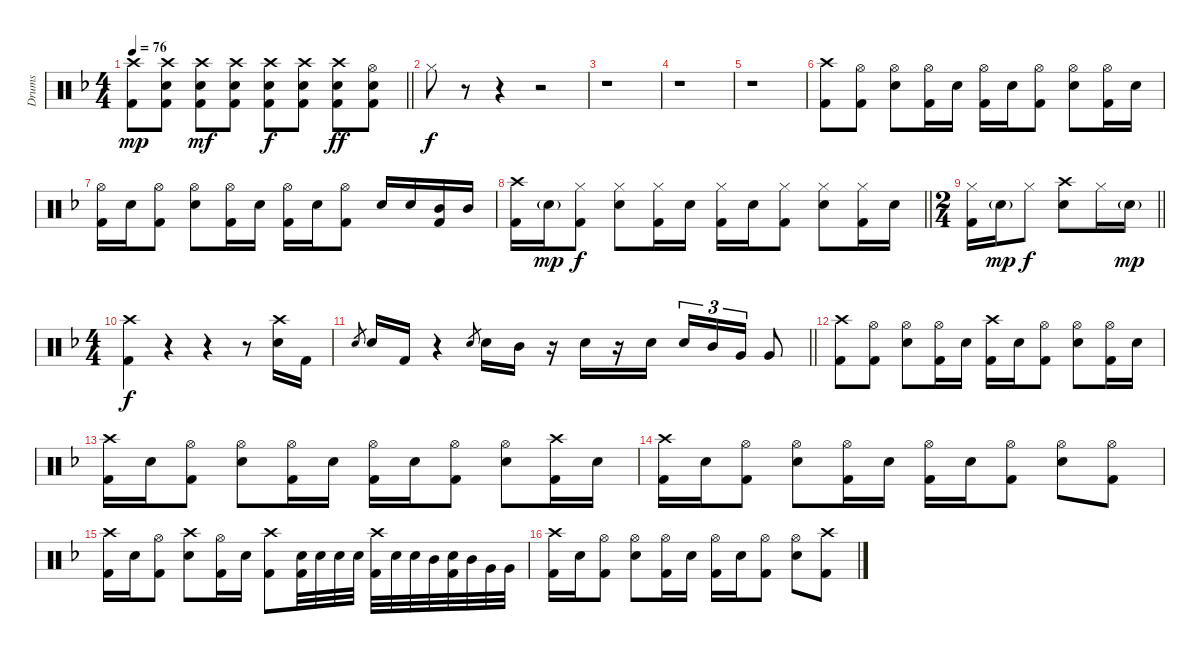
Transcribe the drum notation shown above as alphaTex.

\track ("Drums" "Drums") {instrument percussion}
\staff {score}
\articulation defaults
\ts (4 4)
\tempo 76
\clef neutral
\barLineRight lightlight
\ks f
("Crash high (hit)" "Kick (hit) 2").8{dy mp} ("Crash high (hit)" "Electric Snare (hit)" "Kick (hit) 2").8 ("Crash high (hit)" "Electric Snare (hit)" "Kick (hit) 2").8{dy mf} ("Crash high (hit)" "Electric Snare (hit)" "Kick (hit) 2").8 ("Crash high (hit)" "Electric Snare (hit)" "Kick (hit) 2").8{dy f} ("Crash high (hit)" "Electric Snare (hit)" "Kick (hit) 2").8 ("Crash high (hit)" "Electric Snare (hit)" "Kick (hit) 2").8{dy ff} ("Hi-Hat (open)" "Electric Snare (hit)" "Kick (hit) 2").8 |
"Hi-Hat (closed)".8{dy f} r.8 r.4 r.2 |
r.1 |
r.1 |
r.1 |
("Crash high (hit)" "Kick (hit) 2").8 ("Hi-Hat (open)" "Kick (hit) 2").8 ("Hi-Hat (open)" "Electric Snare (hit)").8 ("Hi-Hat (open)" "Kick (hit) 2").16 "Electric Snare (hit)".16 ("Hi-Hat (open)" "Kick (hit) 2").16 "Electric Snare (hit)".16 ("Hi-Hat (open)" "Kick (hit) 2").8 ("Hi-Hat (open)" "Electric Snare (hit)").8 ("Hi-Hat (open)" "Kick (hit) 2").16 "Electric Snare (hit)".16 |
("Hi-Hat (open)" "Kick (hit) 2").16 "Electric Snare (hit)".16 ("Hi-Hat (open)" "Kick (hit) 2").8 ("Hi-Hat (open)" "Electric Snare (hit)").8 ("Hi-Hat (open)" "Kick (hit) 2").16 "Electric Snare (hit)".16 ("Hi-Hat (open)" "Kick (hit) 2").16 "Electric Snare (hit)".16 ("Hi-Hat (open)" "Kick (hit) 2").8 "Electric Snare (hit)".16 "Electric Snare (hit)".16 ("Mid Tom (hit)" "Kick (hit) 2").16 "Mid Tom (hit)".16 |
\barLineRight lightlight
("Crash high (hit)" "Kick (hit) 2").16 "Electric Snare (hit)"{g}.16{dy mp} ("Hi-Hat (closed)" "Kick (hit) 2").8{dy f} ("Hi-Hat (closed)" "Electric Snare (hit)").8 ("Hi-Hat (closed)" "Kick (hit) 2").16 "Electric Snare (hit)".16 ("Hi-Hat (closed)" "Kick (hit) 2").16 "Electric Snare (hit)".16 ("Hi-Hat (closed)" "Kick (hit) 2").8 ("Hi-Hat (closed)" "Electric Snare (hit)").8 ("Hi-Hat (closed)" "Kick (hit) 2").16 "Electric Snare (hit)".16 |
\ts (2 4)
\barLineRight lightlight
("Hi-Hat (closed)" "Kick (hit) 2").16 "Electric Snare (hit)"{g}.16{dy mp} "Hi-Hat (closed)".8{dy f} ("Crash high (hit)" "Electric Snare (hit)").8 "Hi-Hat (closed)".16 "Electric Snare (hit)"{g}.16{dy mp} |
\ts (4 4)
("Crash high (hit)" "Kick (hit) 2").4{dy f} r.4 r.4 r.8 ("Crash high (hit)" "Electric Snare (hit)").16 "Kick (hit) 2".16 |
\barLineRight lightlight "Electric Snare (hit)".8{gr} "Electric Snare (hit)".16 "Kick (hit) 2".16
r.4 "Electric Snare (hit)".8{gr} "Electric Snare (hit)".16 "Mid Tom (hit)".16 r.16 "Electric Snare (hit)".16 r.16 "Electric Snare (hit)".16 "Electric Snare (hit)".16{tu (3 2)} "Mid Tom (hit)".16{tu (3 2)} "Very Low Tom (hit)".16{tu (3 2)} "Very Low Tom (hit)".8 |
("Crash high (hit)" "Kick (hit) 2").8 ("Hi-Hat (open)" "Kick (hit) 2").8 ("Hi-Hat (open)" "Electric Snare (hit)").8 ("Hi-Hat (open)" "Kick (hit) 2").16 "Electric Snare (hit)".16 ("Crash high (hit)" "Kick (hit) 2").16 "Electric Snare (hit)".16 ("Hi-Hat (open)" "Kick (hit) 2").8 ("Hi-Hat (open)" "Electric Snare (hit)").8 ("Hi-Hat (open)" "Kick (hit) 2").16 "Electric Snare (hit)".16 |
("Crash high (hit)" "Kick (hit) 2").16 "Electric Snare (hit)".16 ("Hi-Hat (open)" "Kick (hit) 2").8 ("Hi-Hat (open)" "Electric Snare (hit)").8 ("Hi-Hat (open)" "Kick (hit) 2").16 "Electric Snare (hit)".16 ("Hi-Hat (open)" "Kick (hit) 2").16 "Electric Snare (hit)".16 ("Hi-Hat (open)" "Kick (hit) 2").8 ("Hi-Hat (open)" "Electric Snare (hit)").8 ("Crash high (hit)" "Kick (hit) 2").16 "Electric Snare (hit)".16 |
("Crash high (hit)" "Kick (hit) 2").16 "Electric Snare (hit)".16 ("Hi-Hat (open)" "Kick (hit) 2").8 ("Hi-Hat (open)" "Electric Snare (hit)").8 ("Hi-Hat (open)" "Kick (hit) 2").16 "Electric Snare (hit)".16 ("Hi-Hat (open)" "Kick (hit) 2").16 "Electric Snare (hit)".16 ("Hi-Hat (open)" "Kick (hit) 2").8 ("Hi-Hat (open)" "Electric Snare (hit)").8 ("Hi-Hat (open)" "Kick (hit) 2").8 |
("Crash high (hit)" "Kick (hit) 2").16 "Electric Snare (hit)".16 ("Hi-Hat (open)" "Kick (hit) 2").8 ("Crash high (hit)" "Electric Snare (hit)").8 ("Hi-Hat (open)" "Kick (hit) 2").16 "Electric Snare (hit)".16 ("Crash high (hit)" "Kick (hit) 2").8 ("Electric Snare (hit)" "Kick (hit) 2").32 "Electric Snare (hit)".32 "Electric Snare (hit)".32 "Electric Snare (hit)".32 ("Crash high (hit)" "Kick (hit) 2").32 "Electric Snare (hit)".32 "Electric Snare (hit)".32 "Mid Tom (hit)".32 ("Electric Snare (hit)" "Kick (hit) 2").32 "Mid Tom (hit)".32 "Very Low Tom (hit)".32 "Very Low Tom (hit)".32 |
("Crash high (hit)" "Kick (hit) 2").16 "Electric Snare (hit)".16 ("Hi-Hat (open)" "Kick (hit) 2").8 ("Hi-Hat (open)" "Electric Snare (hit)").8 ("Hi-Hat (open)" "Kick (hit) 2").16 "Electric Snare (hit)".16 ("Hi-Hat (open)" "Kick (hit) 2").16 "Electric Snare (hit)".16 ("Hi-Hat (open)" "Kick (hit) 2").8 ("Hi-Hat (open)" "Electric Snare (hit)").8 ("Crash high (hit)" "Kick (hit) 2").8
